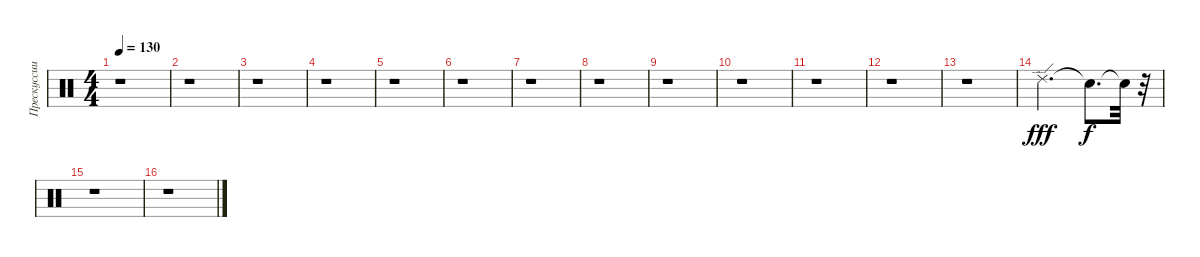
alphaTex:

\track ("Прескуссии 2" "Прескуссии") {instrument percussion}
\staff {score}
\articulation defaults
\ts (4 4)
\tempo 130
\clef neutral
\ks c
r.1{dy f} |
r.1 |
r.1 |
r.1 |
r.1 |
r.1 |
r.1 |
r.1 |
r.1 |
r.1 |
r.1 |
r.1 |
r.1 |
"Ride (edge) 2".2{d dy fff} "Snare (hit)"{t}.8{d dy f} "Snare (hit)"{t}.32 r.32 |
r.1 |
r.1
